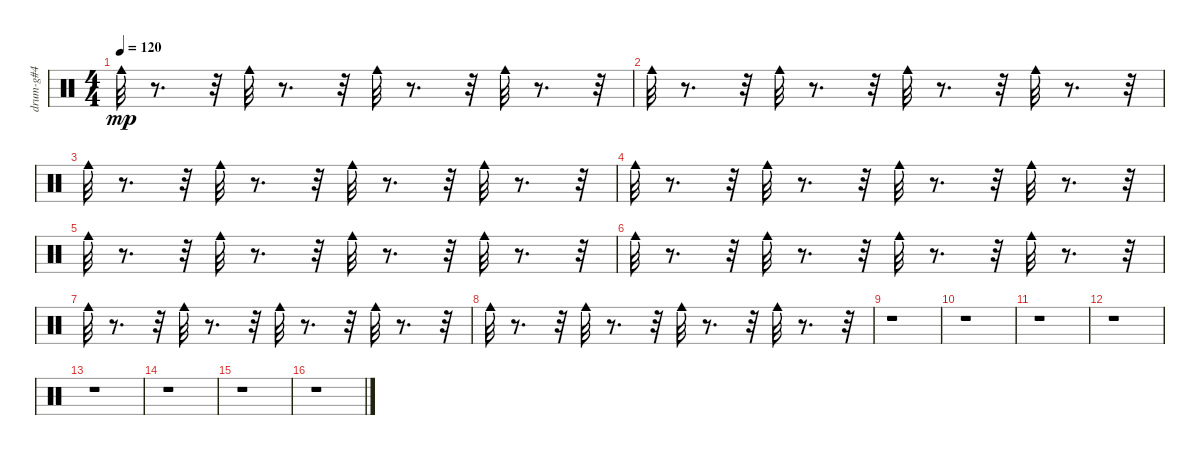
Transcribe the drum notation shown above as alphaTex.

\track ("drum-g#4" "drum-g#4") {instrument percussion}
\staff {score}
\articulation defaults
\ts (4 4)
\tempo 120
\clef neutral
\ks c "Cowbell medium (hit)".32{dy mp}
r.8{d} r.32 "Cowbell medium (hit)".32 r.8{d} r.32 "Cowbell medium (hit)".32 r.8{d} r.32 "Cowbell medium (hit)".32 r.8{d} r.32 |
"Cowbell medium (hit)".32 r.8{d} r.32 "Cowbell medium (hit)".32 r.8{d} r.32 "Cowbell medium (hit)".32 r.8{d} r.32 "Cowbell medium (hit)".32 r.8{d} r.32 |
"Cowbell medium (hit)".32 r.8{d} r.32 "Cowbell medium (hit)".32 r.8{d} r.32 "Cowbell medium (hit)".32 r.8{d} r.32 "Cowbell medium (hit)".32 r.8{d} r.32 |
"Cowbell medium (hit)".32 r.8{d} r.32 "Cowbell medium (hit)".32 r.8{d} r.32 "Cowbell medium (hit)".32 r.8{d} r.32 "Cowbell medium (hit)".32 r.8{d} r.32 |
"Cowbell medium (hit)".32 r.8{d} r.32 "Cowbell medium (hit)".32 r.8{d} r.32 "Cowbell medium (hit)".32 r.8{d} r.32 "Cowbell medium (hit)".32 r.8{d} r.32 |
"Cowbell medium (hit)".32 r.8{d} r.32 "Cowbell medium (hit)".32 r.8{d} r.32 "Cowbell medium (hit)".32 r.8{d} r.32 "Cowbell medium (hit)".32 r.8{d} r.32 |
"Cowbell medium (hit)".32 r.8{d} r.32 "Cowbell medium (hit)".32 r.8{d} r.32 "Cowbell medium (hit)".32 r.8{d} r.32 "Cowbell medium (hit)".32 r.8{d} r.32 |
"Cowbell medium (hit)".32 r.8{d} r.32 "Cowbell medium (hit)".32 r.8{d} r.32 "Cowbell medium (hit)".32 r.8{d} r.32 "Cowbell medium (hit)".32 r.8{d} r.32 |
r.1 |
r.1 |
r.1 |
r.1 |
r.1 |
r.1 |
r.1 |
r.1
